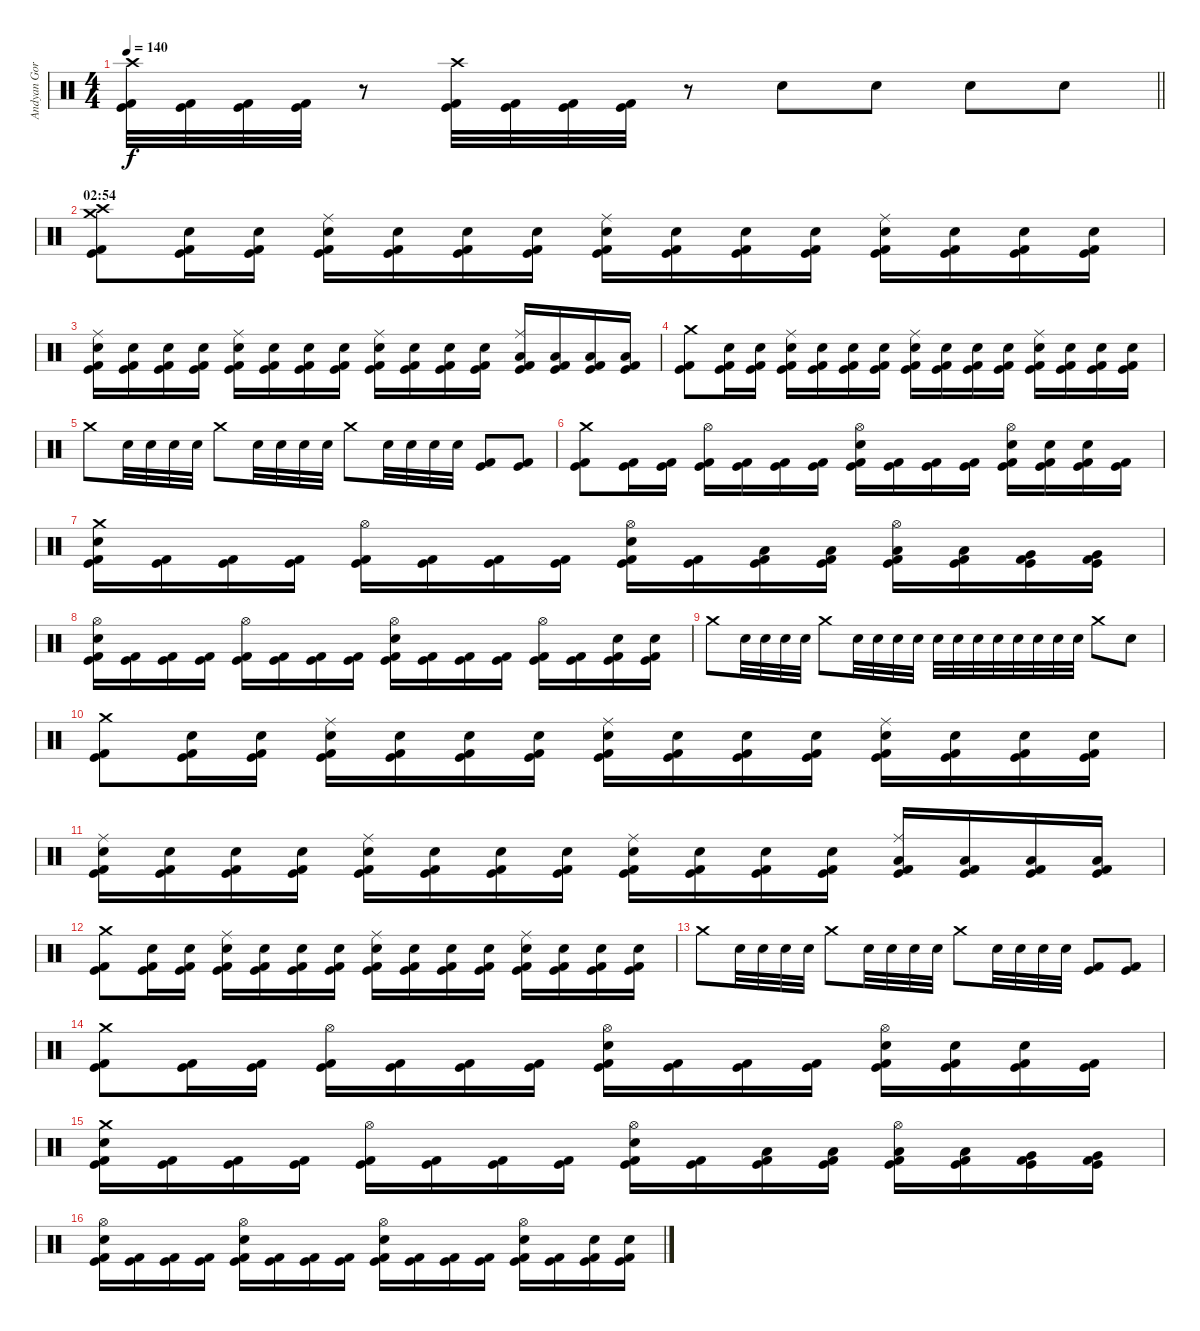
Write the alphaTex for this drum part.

\track ("Andyan Gorust" "Andyan Gor") {instrument percussion}
\staff {score}
\articulation defaults
\ts (4 4)
\tempo 140
\clef neutral
\barLineRight lightlight
\ks c
("Crash high (hit)" "Kick (hit)" "Kick (hit) 2").32{dy f} ("Kick (hit)" "Kick (hit) 2").32 ("Kick (hit)" "Kick (hit) 2").32 ("Kick (hit)" "Kick (hit) 2").32 r.8 ("Crash high (hit)" "Kick (hit)" "Kick (hit) 2").32 ("Kick (hit)" "Kick (hit) 2").32 ("Kick (hit)" "Kick (hit) 2").32 ("Kick (hit)" "Kick (hit) 2").32 r.8 "Electric Snare (hit)".8 "Electric Snare (hit)".8 "Electric Snare (hit)".8 "Electric Snare (hit)".8 |
\section ("" "02:54")
("Crash medium (hit)" "Crash high (hit)" "Kick (hit)" "Kick (hit) 2").8 ("Electric Snare (hit)" "Kick (hit)" "Kick (hit) 2").16 ("Electric Snare (hit)" "Kick (hit)" "Kick (hit) 2").16 ("Ride (middle)" "Electric Snare (hit)" "Kick (hit)" "Kick (hit) 2").16 ("Electric Snare (hit)" "Kick (hit)" "Kick (hit) 2").16 ("Electric Snare (hit)" "Kick (hit)" "Kick (hit) 2").16 ("Electric Snare (hit)" "Kick (hit)" "Kick (hit) 2").16 ("Ride (middle)" "Electric Snare (hit)" "Kick (hit)" "Kick (hit) 2").16 ("Electric Snare (hit)" "Kick (hit)" "Kick (hit) 2").16 ("Electric Snare (hit)" "Kick (hit)" "Kick (hit) 2").16 ("Electric Snare (hit)" "Kick (hit)" "Kick (hit) 2").16 ("Ride (middle)" "Electric Snare (hit)" "Kick (hit)" "Kick (hit) 2").16 ("Electric Snare (hit)" "Kick (hit)" "Kick (hit) 2").16 ("Electric Snare (hit)" "Kick (hit)" "Kick (hit) 2").16 ("Electric Snare (hit)" "Kick (hit)" "Kick (hit) 2").16 |
("Ride (middle)" "Electric Snare (hit)" "Kick (hit)" "Kick (hit) 2").16 ("Electric Snare (hit)" "Kick (hit)" "Kick (hit) 2").16 ("Electric Snare (hit)" "Kick (hit)" "Kick (hit) 2").16 ("Electric Snare (hit)" "Kick (hit)" "Kick (hit) 2").16 ("Ride (middle)" "Electric Snare (hit)" "Kick (hit)" "Kick (hit) 2").16 ("Electric Snare (hit)" "Kick (hit)" "Kick (hit) 2").16 ("Electric Snare (hit)" "Kick (hit)" "Kick (hit) 2").16 ("Electric Snare (hit)" "Kick (hit)" "Kick (hit) 2").16 ("Ride (middle)" "Electric Snare (hit)" "Kick (hit)" "Kick (hit) 2").16 ("Electric Snare (hit)" "Kick (hit)" "Kick (hit) 2").16 ("Electric Snare (hit)" "Kick (hit)" "Kick (hit) 2").16 ("Electric Snare (hit)" "Kick (hit)" "Kick (hit) 2").16 ("Ride (middle)" "Low Tom (hit)" "Kick (hit)" "Kick (hit) 2").16 ("Low Tom (hit)" "Kick (hit)" "Kick (hit) 2").16 ("Low Floor Tom (hit)" "Kick (hit)" "Kick (hit) 2").16 ("Low Floor Tom (hit)" "Kick (hit)" "Kick (hit) 2").16 |
("Crash medium (hit)" "Kick (hit)" "Kick (hit) 2").8 ("Electric Snare (hit)" "Kick (hit)" "Kick (hit) 2").16 ("Electric Snare (hit)" "Kick (hit)" "Kick (hit) 2").16 ("Ride (middle)" "Electric Snare (hit)" "Kick (hit)" "Kick (hit) 2").16 ("Electric Snare (hit)" "Kick (hit)" "Kick (hit) 2").16 ("Electric Snare (hit)" "Kick (hit)" "Kick (hit) 2").16 ("Electric Snare (hit)" "Kick (hit)" "Kick (hit) 2").16 ("Ride (middle)" "Electric Snare (hit)" "Kick (hit)" "Kick (hit) 2").16 ("Electric Snare (hit)" "Kick (hit)" "Kick (hit) 2").16 ("Electric Snare (hit)" "Kick (hit)" "Kick (hit) 2").16 ("Electric Snare (hit)" "Kick (hit)" "Kick (hit) 2").16 ("Ride (middle)" "Electric Snare (hit)" "Kick (hit)" "Kick (hit) 2").16 ("Electric Snare (hit)" "Kick (hit)" "Kick (hit) 2").16 ("Electric Snare (hit)" "Kick (hit)" "Kick (hit) 2").16 ("Electric Snare (hit)" "Kick (hit)" "Kick (hit) 2").16 |
"Crash medium (hit)".8 "Electric Snare (hit)".32 "Electric Snare (hit)".32 "Electric Snare (hit)".32 "Electric Snare (hit)".32 "Crash medium (hit)".8 "Electric Snare (hit)".32 "Electric Snare (hit)".32 "Electric Snare (hit)".32 "Electric Snare (hit)".32 "Crash medium (hit)".8 "Electric Snare (hit)".32 "Electric Snare (hit)".32 "Electric Snare (hit)".32 "Electric Snare (hit)".32 ("Kick (hit)" "Kick (hit) 2").8 ("Kick (hit)" "Kick (hit) 2").8 |
("Crash medium (hit)" "Kick (hit) 2" "Kick (hit)").8 ("Kick (hit)" "Kick (hit) 2").16 ("Kick (hit)" "Kick (hit) 2").16 ("Hi-Hat (open)" "Kick (hit)" "Kick (hit) 2").16 ("Kick (hit)" "Kick (hit) 2").16 ("Kick (hit)" "Kick (hit) 2").16 ("Kick (hit)" "Kick (hit) 2").16 ("Hi-Hat (open)" "Electric Snare (hit)" "Kick (hit)" "Kick (hit) 2").16 ("Kick (hit)" "Kick (hit) 2").16 ("Kick (hit)" "Kick (hit) 2").16 ("Kick (hit)" "Kick (hit) 2").16 ("Hi-Hat (open)" "Electric Snare (hit)" "Kick (hit)" "Kick (hit) 2").16 ("Electric Snare (hit)" "Kick (hit)" "Kick (hit) 2").16 ("Electric Snare (hit)" "Kick (hit)" "Kick (hit) 2").16 ("Kick (hit)" "Kick (hit) 2").16 |
("Crash medium (hit)" "Electric Snare (hit)" "Kick (hit) 2" "Kick (hit)").16 ("Kick (hit)" "Kick (hit) 2").16 ("Kick (hit)" "Kick (hit) 2").16 ("Kick (hit)" "Kick (hit) 2").16 ("Hi-Hat (open)" "Kick (hit)" "Kick (hit) 2").16 ("Kick (hit)" "Kick (hit) 2").16 ("Kick (hit)" "Kick (hit) 2").16 ("Kick (hit)" "Kick (hit) 2").16 ("Hi-Hat (open)" "Electric Snare (hit)" "Kick (hit)" "Kick (hit) 2").16 ("Kick (hit)" "Kick (hit) 2").16 ("Low Tom (hit)" "Kick (hit)" "Kick (hit) 2").16 ("Low Tom (hit)" "Kick (hit)" "Kick (hit) 2").16 ("Hi-Hat (open)" "Low Floor Tom (hit)" "Kick (hit)" "Kick (hit) 2").16 ("Low Floor Tom (hit)" "Kick (hit)" "Kick (hit) 2").16 ("Very Low Tom (hit)" "Kick (hit)" "Kick (hit) 2").16 ("Very Low Tom (hit)" "Kick (hit)" "Kick (hit) 2").16 |
("Hi-Hat (open)" "Electric Snare (hit)" "Kick (hit) 2" "Kick (hit)").16 ("Kick (hit)" "Kick (hit) 2").16 ("Kick (hit)" "Kick (hit) 2").16 ("Kick (hit)" "Kick (hit) 2").16 ("Hi-Hat (open)" "Kick (hit)" "Kick (hit) 2").16 ("Kick (hit)" "Kick (hit) 2").16 ("Kick (hit)" "Kick (hit) 2").16 ("Kick (hit)" "Kick (hit) 2").16 ("Hi-Hat (open)" "Electric Snare (hit)" "Kick (hit)" "Kick (hit) 2").16 ("Kick (hit)" "Kick (hit) 2").16 ("Kick (hit)" "Kick (hit) 2").16 ("Kick (hit)" "Kick (hit) 2").16 ("Hi-Hat (open)" "Kick (hit)" "Kick (hit) 2").16 ("Kick (hit)" "Kick (hit) 2").16 ("Electric Snare (hit)" "Kick (hit)" "Kick (hit) 2").16 ("Electric Snare (hit)" "Kick (hit)" "Kick (hit) 2").16 |
"Crash medium (hit)".8 "Electric Snare (hit)".32 "Electric Snare (hit)".32 "Electric Snare (hit)".32 "Electric Snare (hit)".32 "Crash medium (hit)".8 "Electric Snare (hit)".32 "Electric Snare (hit)".32 "Electric Snare (hit)".32 "Electric Snare (hit)".32 "Electric Snare (hit)".32 "Electric Snare (hit)".32 "Electric Snare (hit)".32 "Electric Snare (hit)".32 "Electric Snare (hit)".32 "Electric Snare (hit)".32 "Electric Snare (hit)".32 "Electric Snare (hit)".32 "Crash medium (hit)".8 "Electric Snare (hit)".8 |
("Crash medium (hit)" "Kick (hit)" "Kick (hit) 2").8 ("Electric Snare (hit)" "Kick (hit)" "Kick (hit) 2").16 ("Electric Snare (hit)" "Kick (hit)" "Kick (hit) 2").16 ("Ride (middle)" "Electric Snare (hit)" "Kick (hit)" "Kick (hit) 2").16 ("Electric Snare (hit)" "Kick (hit)" "Kick (hit) 2").16 ("Electric Snare (hit)" "Kick (hit)" "Kick (hit) 2").16 ("Electric Snare (hit)" "Kick (hit)" "Kick (hit) 2").16 ("Ride (middle)" "Electric Snare (hit)" "Kick (hit)" "Kick (hit) 2").16 ("Electric Snare (hit)" "Kick (hit)" "Kick (hit) 2").16 ("Electric Snare (hit)" "Kick (hit)" "Kick (hit) 2").16 ("Electric Snare (hit)" "Kick (hit)" "Kick (hit) 2").16 ("Ride (middle)" "Electric Snare (hit)" "Kick (hit)" "Kick (hit) 2").16 ("Electric Snare (hit)" "Kick (hit)" "Kick (hit) 2").16 ("Electric Snare (hit)" "Kick (hit)" "Kick (hit) 2").16 ("Electric Snare (hit)" "Kick (hit)" "Kick (hit) 2").16 |
("Ride (middle)" "Electric Snare (hit)" "Kick (hit)" "Kick (hit) 2").16 ("Electric Snare (hit)" "Kick (hit)" "Kick (hit) 2").16 ("Electric Snare (hit)" "Kick (hit)" "Kick (hit) 2").16 ("Electric Snare (hit)" "Kick (hit)" "Kick (hit) 2").16 ("Ride (middle)" "Electric Snare (hit)" "Kick (hit)" "Kick (hit) 2").16 ("Electric Snare (hit)" "Kick (hit)" "Kick (hit) 2").16 ("Electric Snare (hit)" "Kick (hit)" "Kick (hit) 2").16 ("Electric Snare (hit)" "Kick (hit)" "Kick (hit) 2").16 ("Ride (middle)" "Electric Snare (hit)" "Kick (hit)" "Kick (hit) 2").16 ("Electric Snare (hit)" "Kick (hit)" "Kick (hit) 2").16 ("Electric Snare (hit)" "Kick (hit)" "Kick (hit) 2").16 ("Electric Snare (hit)" "Kick (hit)" "Kick (hit) 2").16 ("Ride (middle)" "Low Tom (hit)" "Kick (hit)" "Kick (hit) 2").16 ("Low Tom (hit)" "Kick (hit)" "Kick (hit) 2").16 ("Low Floor Tom (hit)" "Kick (hit)" "Kick (hit) 2").16 ("Low Floor Tom (hit)" "Kick (hit)" "Kick (hit) 2").16 |
("Crash medium (hit)" "Kick (hit)" "Kick (hit) 2").8 ("Electric Snare (hit)" "Kick (hit)" "Kick (hit) 2").16 ("Electric Snare (hit)" "Kick (hit)" "Kick (hit) 2").16 ("Ride (middle)" "Electric Snare (hit)" "Kick (hit)" "Kick (hit) 2").16 ("Electric Snare (hit)" "Kick (hit)" "Kick (hit) 2").16 ("Electric Snare (hit)" "Kick (hit)" "Kick (hit) 2").16 ("Electric Snare (hit)" "Kick (hit)" "Kick (hit) 2").16 ("Ride (middle)" "Electric Snare (hit)" "Kick (hit)" "Kick (hit) 2").16 ("Electric Snare (hit)" "Kick (hit)" "Kick (hit) 2").16 ("Electric Snare (hit)" "Kick (hit)" "Kick (hit) 2").16 ("Electric Snare (hit)" "Kick (hit)" "Kick (hit) 2").16 ("Ride (middle)" "Electric Snare (hit)" "Kick (hit)" "Kick (hit) 2").16 ("Electric Snare (hit)" "Kick (hit)" "Kick (hit) 2").16 ("Electric Snare (hit)" "Kick (hit)" "Kick (hit) 2").16 ("Electric Snare (hit)" "Kick (hit)" "Kick (hit) 2").16 |
"Crash medium (hit)".8 "Electric Snare (hit)".32 "Electric Snare (hit)".32 "Electric Snare (hit)".32 "Electric Snare (hit)".32 "Crash medium (hit)".8 "Electric Snare (hit)".32 "Electric Snare (hit)".32 "Electric Snare (hit)".32 "Electric Snare (hit)".32 "Crash medium (hit)".8 "Electric Snare (hit)".32 "Electric Snare (hit)".32 "Electric Snare (hit)".32 "Electric Snare (hit)".32 ("Kick (hit)" "Kick (hit) 2").8 ("Kick (hit)" "Kick (hit) 2").8 |
("Crash medium (hit)" "Kick (hit) 2" "Kick (hit)").8 ("Kick (hit)" "Kick (hit) 2").16 ("Kick (hit)" "Kick (hit) 2").16 ("Hi-Hat (open)" "Kick (hit)" "Kick (hit) 2").16 ("Kick (hit)" "Kick (hit) 2").16 ("Kick (hit)" "Kick (hit) 2").16 ("Kick (hit)" "Kick (hit) 2").16 ("Hi-Hat (open)" "Electric Snare (hit)" "Kick (hit)" "Kick (hit) 2").16 ("Kick (hit)" "Kick (hit) 2").16 ("Kick (hit)" "Kick (hit) 2").16 ("Kick (hit)" "Kick (hit) 2").16 ("Hi-Hat (open)" "Electric Snare (hit)" "Kick (hit)" "Kick (hit) 2").16 ("Electric Snare (hit)" "Kick (hit)" "Kick (hit) 2").16 ("Electric Snare (hit)" "Kick (hit)" "Kick (hit) 2").16 ("Kick (hit)" "Kick (hit) 2").16 |
("Crash medium (hit)" "Electric Snare (hit)" "Kick (hit) 2" "Kick (hit)").16 ("Kick (hit)" "Kick (hit) 2").16 ("Kick (hit)" "Kick (hit) 2").16 ("Kick (hit)" "Kick (hit) 2").16 ("Hi-Hat (open)" "Kick (hit)" "Kick (hit) 2").16 ("Kick (hit)" "Kick (hit) 2").16 ("Kick (hit)" "Kick (hit) 2").16 ("Kick (hit)" "Kick (hit) 2").16 ("Hi-Hat (open)" "Electric Snare (hit)" "Kick (hit)" "Kick (hit) 2").16 ("Kick (hit)" "Kick (hit) 2").16 ("Low Tom (hit)" "Kick (hit)" "Kick (hit) 2").16 ("Low Tom (hit)" "Kick (hit)" "Kick (hit) 2").16 ("Hi-Hat (open)" "Low Floor Tom (hit)" "Kick (hit)" "Kick (hit) 2").16 ("Low Floor Tom (hit)" "Kick (hit)" "Kick (hit) 2").16 ("Very Low Tom (hit)" "Kick (hit)" "Kick (hit) 2").16 ("Very Low Tom (hit)" "Kick (hit)" "Kick (hit) 2").16 |
("Hi-Hat (open)" "Electric Snare (hit)" "Kick (hit) 2" "Kick (hit)").16 ("Kick (hit)" "Kick (hit) 2").16 ("Kick (hit)" "Kick (hit) 2").16 ("Kick (hit)" "Kick (hit) 2").16 ("Hi-Hat (open)" "Electric Snare (hit)" "Kick (hit)" "Kick (hit) 2").16 ("Kick (hit)" "Kick (hit) 2").16 ("Kick (hit)" "Kick (hit) 2").16 ("Kick (hit)" "Kick (hit) 2").16 ("Hi-Hat (open)" "Electric Snare (hit)" "Kick (hit)" "Kick (hit) 2").16 ("Kick (hit)" "Kick (hit) 2").16 ("Kick (hit)" "Kick (hit) 2").16 ("Kick (hit)" "Kick (hit) 2").16 ("Hi-Hat (open)" "Electric Snare (hit)" "Kick (hit)" "Kick (hit) 2").16 ("Kick (hit)" "Kick (hit) 2").16 ("Electric Snare (hit)" "Kick (hit)" "Kick (hit) 2").16 ("Electric Snare (hit)" "Kick (hit)" "Kick (hit) 2").16
